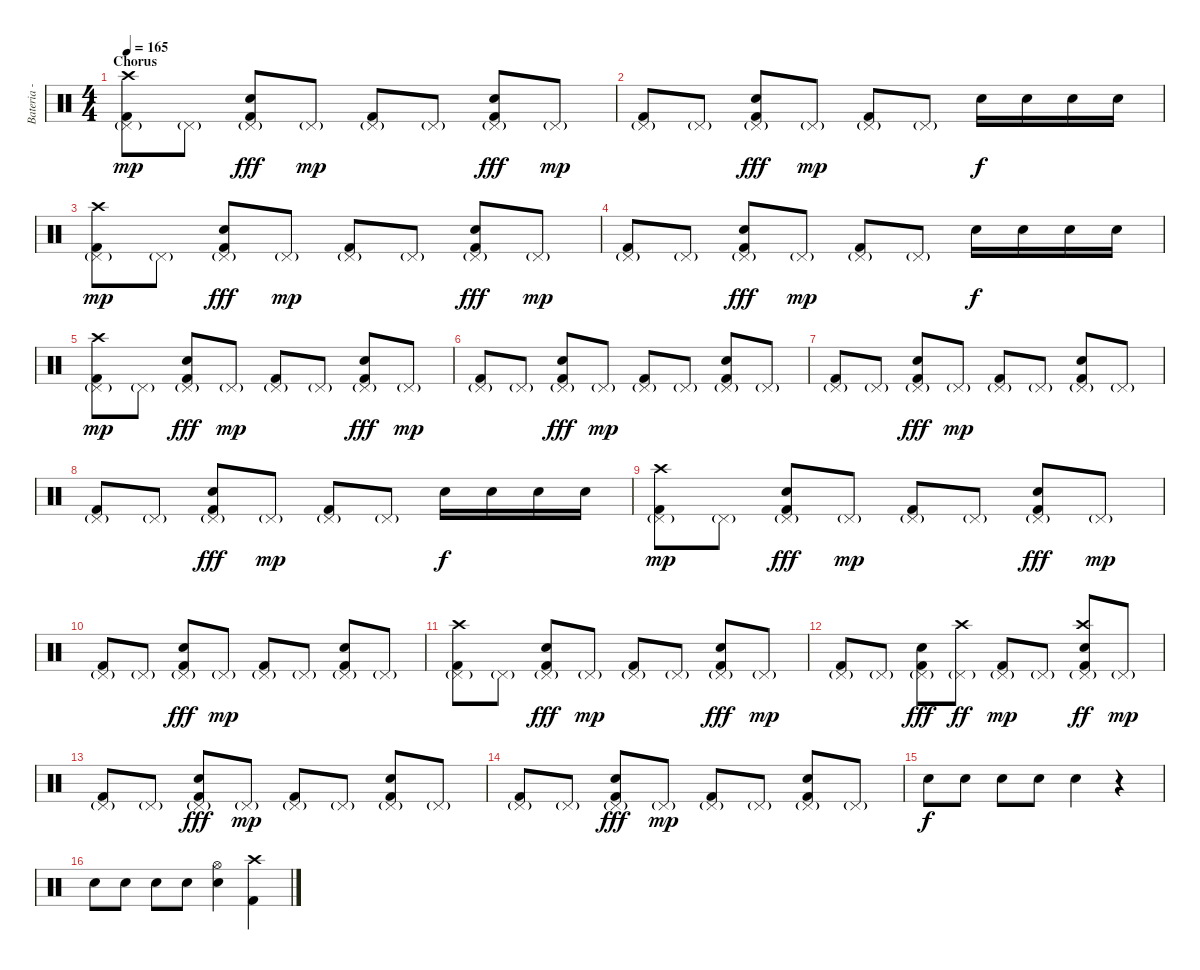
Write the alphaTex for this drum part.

\track ("Bateria - Larzon" "Bateria - ") {instrument percussion}
\staff {score}
\articulation defaults
\ts (4 4)
\section ("" "Chorus")
\tempo 165
\clef neutral
\ks c
("Kick (hit) 2" "Pedal Hi-Hat (hit)"{g} "Crash high (hit)").8{dy mp} "Pedal Hi-Hat (hit)"{g}.8 ("Pedal Hi-Hat (hit)"{g} "Electric Snare (hit)" "Kick (hit) 2").8{dy fff} "Pedal Hi-Hat (hit)"{g}.8{dy mp} ("Kick (hit) 2" "Pedal Hi-Hat (hit)"{g}).8 "Pedal Hi-Hat (hit)"{g}.8 ("Pedal Hi-Hat (hit)"{g} "Electric Snare (hit)" "Kick (hit) 2").8{dy fff} "Pedal Hi-Hat (hit)"{g}.8{dy mp} |
("Kick (hit) 2" "Pedal Hi-Hat (hit)"{g}).8 "Pedal Hi-Hat (hit)"{g}.8 ("Pedal Hi-Hat (hit)"{g} "Electric Snare (hit)" "Kick (hit) 2").8{dy fff} "Pedal Hi-Hat (hit)"{g}.8{dy mp} ("Kick (hit) 2" "Pedal Hi-Hat (hit)"{g}).8 "Pedal Hi-Hat (hit)"{g}.8 "Electric Snare (hit)".16{dy f} "Electric Snare (hit)".16 "Electric Snare (hit)".16 "Electric Snare (hit)".16 |
("Kick (hit) 2" "Pedal Hi-Hat (hit)"{g} "Crash high (hit)").8{dy mp} "Pedal Hi-Hat (hit)"{g}.8 ("Pedal Hi-Hat (hit)"{g} "Electric Snare (hit)" "Kick (hit) 2").8{dy fff} "Pedal Hi-Hat (hit)"{g}.8{dy mp} ("Kick (hit) 2" "Pedal Hi-Hat (hit)"{g}).8 "Pedal Hi-Hat (hit)"{g}.8 ("Pedal Hi-Hat (hit)"{g} "Electric Snare (hit)" "Kick (hit) 2").8{dy fff} "Pedal Hi-Hat (hit)"{g}.8{dy mp} |
("Kick (hit) 2" "Pedal Hi-Hat (hit)"{g}).8 "Pedal Hi-Hat (hit)"{g}.8 ("Pedal Hi-Hat (hit)"{g} "Electric Snare (hit)" "Kick (hit) 2").8{dy fff} "Pedal Hi-Hat (hit)"{g}.8{dy mp} ("Kick (hit) 2" "Pedal Hi-Hat (hit)"{g}).8 "Pedal Hi-Hat (hit)"{g}.8 "Snare (hit) 2".16{dy f} "Snare (hit) 2".16 "Snare (hit) 2".16 "Snare (hit) 2".16 |
("Kick (hit) 2" "Pedal Hi-Hat (hit)"{g} "Crash high (hit)").8{dy mp} "Pedal Hi-Hat (hit)"{g}.8 ("Pedal Hi-Hat (hit)"{g} "Electric Snare (hit)" "Kick (hit) 2").8{dy fff} "Pedal Hi-Hat (hit)"{g}.8{dy mp} ("Kick (hit) 2" "Pedal Hi-Hat (hit)"{g}).8 "Pedal Hi-Hat (hit)"{g}.8 ("Pedal Hi-Hat (hit)"{g} "Electric Snare (hit)" "Kick (hit) 2").8{dy fff} "Pedal Hi-Hat (hit)"{g}.8{dy mp} |
("Kick (hit) 2" "Pedal Hi-Hat (hit)"{g}).8 "Pedal Hi-Hat (hit)"{g}.8 ("Pedal Hi-Hat (hit)"{g} "Electric Snare (hit)" "Kick (hit) 2").8{dy fff} "Pedal Hi-Hat (hit)"{g}.8{dy mp} ("Kick (hit) 2" "Pedal Hi-Hat (hit)"{g}).8 "Pedal Hi-Hat (hit)"{g}.8 ("Pedal Hi-Hat (hit)"{g} "Electric Snare (hit)" "Kick (hit) 2").8 "Pedal Hi-Hat (hit)"{g}.8 |
("Kick (hit) 2" "Pedal Hi-Hat (hit)"{g}).8 "Pedal Hi-Hat (hit)"{g}.8 ("Pedal Hi-Hat (hit)"{g} "Electric Snare (hit)" "Kick (hit) 2").8{dy fff} "Pedal Hi-Hat (hit)"{g}.8{dy mp} ("Kick (hit) 2" "Pedal Hi-Hat (hit)"{g}).8 "Pedal Hi-Hat (hit)"{g}.8 ("Pedal Hi-Hat (hit)"{g} "Electric Snare (hit)" "Kick (hit) 2").8 "Pedal Hi-Hat (hit)"{g}.8 |
("Kick (hit) 2" "Pedal Hi-Hat (hit)"{g}).8 "Pedal Hi-Hat (hit)"{g}.8 ("Pedal Hi-Hat (hit)"{g} "Electric Snare (hit)" "Kick (hit) 2").8{dy fff} "Pedal Hi-Hat (hit)"{g}.8{dy mp} ("Kick (hit) 2" "Pedal Hi-Hat (hit)"{g}).8 "Pedal Hi-Hat (hit)"{g}.8 "Electric Snare (hit)".16{dy f} "Electric Snare (hit)".16 "Electric Snare (hit)".16 "Electric Snare (hit)".16 |
("Kick (hit) 2" "Pedal Hi-Hat (hit)"{g} "Crash high (hit)").8{dy mp} "Pedal Hi-Hat (hit)"{g}.8 ("Pedal Hi-Hat (hit)"{g} "Electric Snare (hit)" "Kick (hit) 2").8{dy fff} "Pedal Hi-Hat (hit)"{g}.8{dy mp} ("Kick (hit) 2" "Pedal Hi-Hat (hit)"{g}).8 "Pedal Hi-Hat (hit)"{g}.8 ("Pedal Hi-Hat (hit)"{g} "Electric Snare (hit)" "Kick (hit) 2").8{dy fff} "Pedal Hi-Hat (hit)"{g}.8{dy mp} |
("Kick (hit) 2" "Pedal Hi-Hat (hit)"{g}).8 "Pedal Hi-Hat (hit)"{g}.8 ("Pedal Hi-Hat (hit)"{g} "Electric Snare (hit)" "Kick (hit) 2").8{dy fff} "Pedal Hi-Hat (hit)"{g}.8{dy mp} ("Kick (hit) 2" "Pedal Hi-Hat (hit)"{g}).8 "Pedal Hi-Hat (hit)"{g}.8 ("Pedal Hi-Hat (hit)"{g} "Electric Snare (hit)" "Kick (hit) 2").8 "Pedal Hi-Hat (hit)"{g}.8 |
("Kick (hit) 2" "Pedal Hi-Hat (hit)"{g} "Crash high (hit)").8 "Pedal Hi-Hat (hit)"{g}.8 ("Pedal Hi-Hat (hit)"{g} "Electric Snare (hit)" "Kick (hit) 2").8{dy fff} "Pedal Hi-Hat (hit)"{g}.8{dy mp} ("Kick (hit) 2" "Pedal Hi-Hat (hit)"{g}).8 "Pedal Hi-Hat (hit)"{g}.8 ("Pedal Hi-Hat (hit)"{g} "Electric Snare (hit)" "Kick (hit) 2").8{dy fff} "Pedal Hi-Hat (hit)"{g}.8{dy mp} |
("Kick (hit) 2" "Pedal Hi-Hat (hit)"{g}).8 "Pedal Hi-Hat (hit)"{g}.8 ("Pedal Hi-Hat (hit)"{g} "Electric Snare (hit)" "Kick (hit) 2").8{dy fff} ("Pedal Hi-Hat (hit)"{g} "Crash high (hit)").8{dy ff} ("Kick (hit) 2" "Pedal Hi-Hat (hit)"{g}).8{dy mp} "Pedal Hi-Hat (hit)"{g}.8 ("Pedal Hi-Hat (hit)"{g} "Electric Snare (hit)" "Kick (hit) 2" "Crash high (hit)").8{dy ff} "Pedal Hi-Hat (hit)"{g}.8{dy mp} |
("Kick (hit) 2" "Pedal Hi-Hat (hit)"{g}).8 "Pedal Hi-Hat (hit)"{g}.8 ("Pedal Hi-Hat (hit)"{g} "Electric Snare (hit)" "Kick (hit) 2").8{dy fff} "Pedal Hi-Hat (hit)"{g}.8{dy mp} ("Kick (hit) 2" "Pedal Hi-Hat (hit)"{g}).8 "Pedal Hi-Hat (hit)"{g}.8 ("Pedal Hi-Hat (hit)"{g} "Electric Snare (hit)" "Kick (hit) 2").8 "Pedal Hi-Hat (hit)"{g}.8 |
("Kick (hit) 2" "Pedal Hi-Hat (hit)"{g}).8 "Pedal Hi-Hat (hit)"{g}.8 ("Pedal Hi-Hat (hit)"{g} "Electric Snare (hit)" "Kick (hit) 2").8{dy fff} "Pedal Hi-Hat (hit)"{g}.8{dy mp} ("Kick (hit) 2" "Pedal Hi-Hat (hit)"{g}).8 "Pedal Hi-Hat (hit)"{g}.8 ("Pedal Hi-Hat (hit)"{g} "Electric Snare (hit)" "Kick (hit) 2").8 "Pedal Hi-Hat (hit)"{g}.8 |
"Snare (hit) 2".8{dy f} "Snare (hit) 2".8 "Snare (hit) 2".8 "Snare (hit) 2".8 "Snare (hit) 2".4 r.4 |
"Electric Snare (hit)".8 "Electric Snare (hit)".8 "Electric Snare (hit)".8 "Electric Snare (hit)".8 ("Electric Snare (hit)" "Hi-Hat (open)").4 ("Kick (hit) 2" "Crash high (hit)").4
